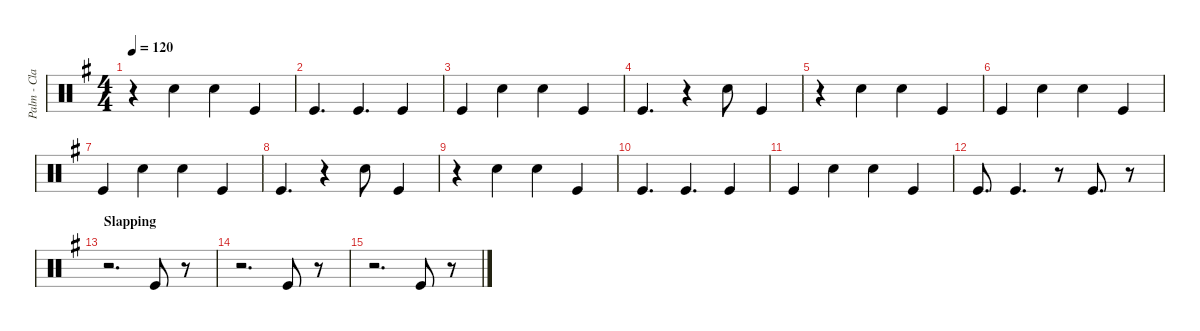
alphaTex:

\defaultSystemsLayout 4
\hideDynamics
\bracketExtendMode nobrackets
\otherSystemsTrackNameOrientation horizontal
\track ("Palm - Clap" "Palm - Cla") {defaultSystemsLayout 2 instrument percussion}
\staff {score}
\articulation defaults
\ts (4 4)
\tempo 120
\clef neutral
\ks g
r.4{dy mp} "Hand Clap (hit)"{acc forcenatural}.4 "Hand Clap (hit)"{acc forcenatural}.4 "Kick (hit)"{acc forcenatural}.4 |
"Kick (hit)"{acc forcenatural}.4{d} "Kick (hit)"{acc forcenatural}.4{d} "Kick (hit)"{acc forcenatural}.4 |
"Kick (hit)"{acc forcenatural}.4 "Hand Clap (hit)"{acc forcenatural}.4 "Hand Clap (hit)"{acc forcenatural}.4 "Kick (hit)"{acc forcenatural}.4 |
"Kick (hit)"{acc forcenatural}.4{d} r.4 "Hand Clap (hit)"{acc forcenatural}.8 "Kick (hit)"{acc forcenatural}.4 |
r.4 "Hand Clap (hit)"{acc forcenatural}.4 "Hand Clap (hit)"{acc forcenatural}.4 "Kick (hit)"{acc forcenatural}.4 |
"Kick (hit)"{acc forcenatural}.4 "Hand Clap (hit)"{acc forcenatural}.4 "Hand Clap (hit)"{acc forcenatural}.4 "Kick (hit)"{acc forcenatural}.4 |
"Kick (hit)"{acc forcenatural}.4 "Hand Clap (hit)"{acc forcenatural}.4 "Hand Clap (hit)"{acc forcenatural}.4 "Kick (hit)"{acc forcenatural}.4 |
"Kick (hit)"{acc forcenatural}.4{d} r.4 "Hand Clap (hit)"{acc forcenatural}.8 "Kick (hit)"{acc forcenatural}.4 |
r.4 "Hand Clap (hit)"{acc forcenatural}.4 "Hand Clap (hit)"{acc forcenatural}.4 "Kick (hit)"{acc forcenatural}.4 |
"Kick (hit)"{acc forcenatural}.4{d} "Kick (hit)"{acc forcenatural}.4{d} "Kick (hit)"{acc forcenatural}.4 |
"Kick (hit)"{acc forcenatural}.4 "Hand Clap (hit)"{acc forcenatural}.4 "Hand Clap (hit)"{acc forcenatural}.4 "Kick (hit)"{acc forcenatural}.4 |
"Kick (hit)"{acc forcenatural}.8{d} "Kick (hit)"{acc forcenatural}.4{d} r.8 "Kick (hit)"{acc forcenatural}.8{d} r.8 |
\section ("" "Slapping")
r.2{d} "Kick (hit)"{acc forcenatural}.8 r.8 |
r.2{d} "Kick (hit)"{acc forcenatural}.8 r.8 |
r.2{d} "Kick (hit)"{acc forcenatural}.8 r.8
